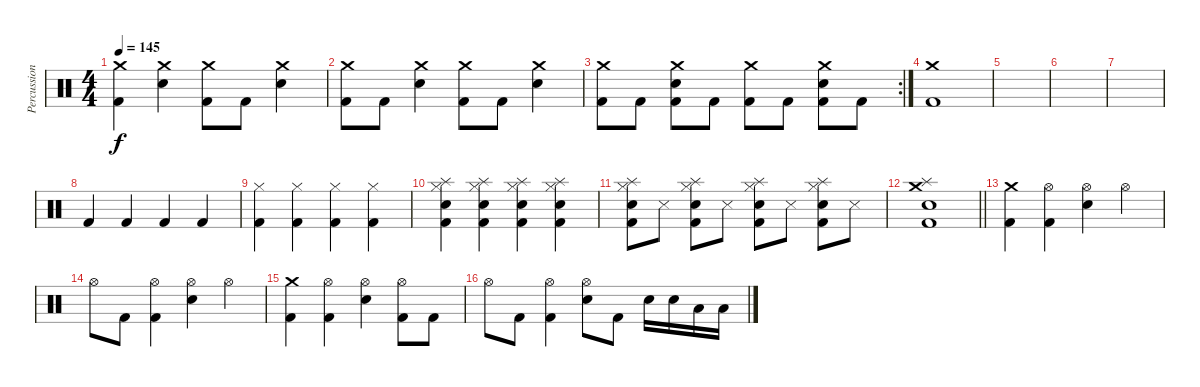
\track ("Percussion" "Percussion") {instrument percussion}
\staff {score}
\articulation defaults
\ts (4 4)
\tempo 145
\clef neutral
\ks c
("Crash medium (hit)" "Kick (hit) 2").4{dy f} ("Crash medium (hit)" "Snare (hit) 2").4 ("Crash medium (hit)" "Kick (hit) 2").8 "Kick (hit) 2".8 ("Crash medium (hit)" "Snare (hit) 2").4 |
("Crash medium (hit)" "Kick (hit) 2").8 "Kick (hit) 2".8 ("Crash medium (hit)" "Snare (hit) 2").4 ("Crash medium (hit)" "Kick (hit) 2").8 "Kick (hit) 2".8 ("Crash medium (hit)" "Snare (hit) 2").4 |
\rc 2
("Crash medium (hit)" "Kick (hit) 2").8 "Kick (hit) 2".8 ("Crash medium (hit)" "Snare (hit) 2" "Kick (hit) 2").8 "Kick (hit) 2".8 ("Crash medium (hit)" "Kick (hit) 2").8 "Kick (hit) 2".8 ("Crash medium (hit)" "Snare (hit) 2" "Kick (hit) 2").8 "Kick (hit) 2".8 |
("Crash medium (hit)" "Kick (hit) 2").1 |
|
|
|
"Kick (hit) 2".4 "Kick (hit) 2".4 "Kick (hit) 2".4 "Kick (hit) 2".4 |
("Hi-Hat (closed)" "Kick (hit) 2").4 ("Hi-Hat (closed)" "Kick (hit) 2").4 ("Hi-Hat (closed)" "Kick (hit) 2").4 ("Hi-Hat (closed)" "Kick (hit) 2").4 |
("Hi-Hat (closed)" "Splash (hit)" "Snare (hit) 2" "Kick (hit) 2").4 ("Hi-Hat (closed)" "Splash (hit)" "Snare (hit) 2" "Kick (hit) 2").4 ("Hi-Hat (closed)" "Splash (hit)" "Snare (hit) 2" "Kick (hit) 2").4 ("Hi-Hat (closed)" "Splash (hit)" "Snare (hit) 2" "Kick (hit) 2").4 |
("Hi-Hat (closed)" "Splash (hit)" "Snare (hit) 2" "Kick (hit) 2").8 "Snare (side stick) 3".8 ("Hi-Hat (closed)" "Splash (hit)" "Snare (hit) 2" "Kick (hit) 2").8 "Snare (side stick) 3".8 ("Hi-Hat (closed)" "Splash (hit)" "Snare (hit) 2" "Kick (hit) 2").8 "Snare (side stick) 3".8 ("Hi-Hat (closed)" "Splash (hit)" "Snare (hit) 2" "Kick (hit) 2").8 "Snare (side stick) 3".8 |
\barLineRight lightlight
("Crash medium (hit)" "Splash (hit)" "Snare (hit) 2" "Kick (hit) 2").1 |
("Crash medium (hit)" "Kick (hit) 2").4 ("Hi-Hat (open)" "Kick (hit) 2").4 ("Hi-Hat (open)" "Snare (hit) 2").4 "Hi-Hat (open)".4 |
"Hi-Hat (open)".8 "Kick (hit) 2".8 ("Hi-Hat (open)" "Kick (hit) 2").4 ("Hi-Hat (open)" "Snare (hit) 2").4 "Hi-Hat (open)".4 |
("Crash medium (hit)" "Kick (hit) 2").4 ("Hi-Hat (open)" "Kick (hit) 2").4 ("Hi-Hat (open)" "Snare (hit) 2").4 ("Hi-Hat (open)" "Kick (hit) 2").8 "Kick (hit) 2".8 |
"Hi-Hat (open)".8 "Kick (hit) 2".8 ("Hi-Hat (open)" "Kick (hit) 2").4 ("Hi-Hat (open)" "Snare (hit) 2").8 "Kick (hit) 2".8 "Snare (hit) 2".16 "Snare (hit) 2".16 "Low Floor Tom (hit)".16 "Low Floor Tom (hit)".16
